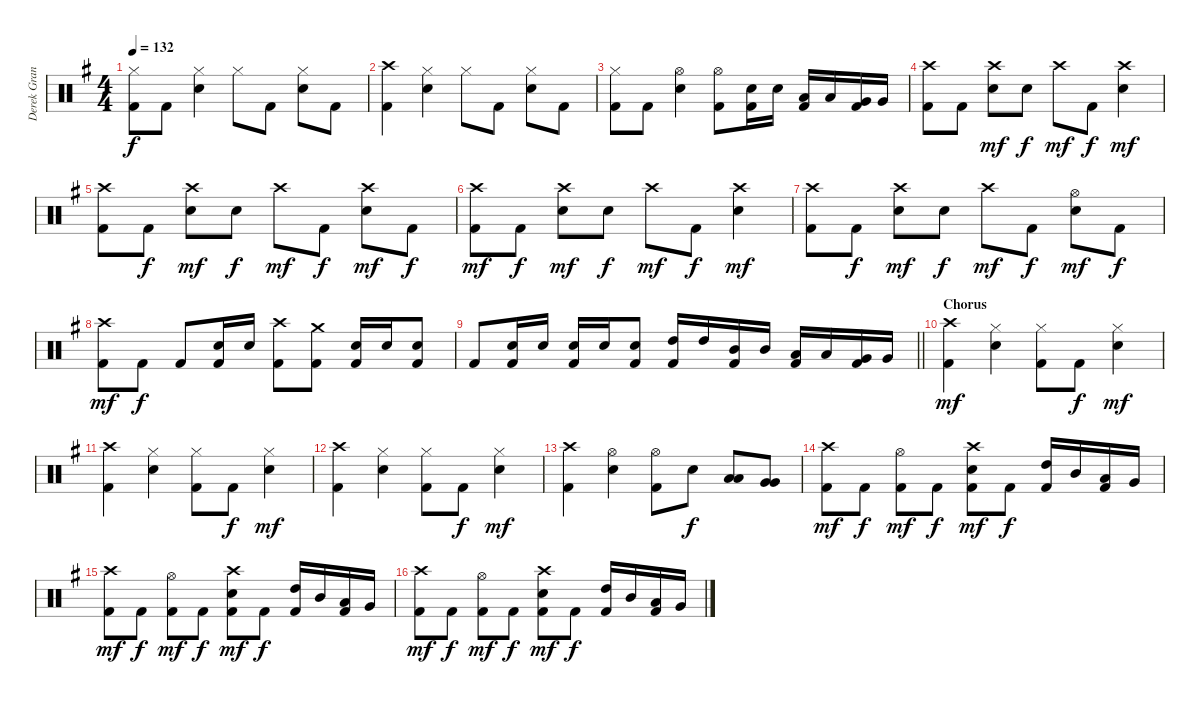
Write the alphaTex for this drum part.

\track ("Derek Grant - Drums" "Derek Gran") {instrument percussion}
\staff {score}
\articulation defaults
\ts (4 4)
\tempo 132
\clef neutral
\ks g
("Kick (hit) 2" "Hi-Hat (closed)").8{dy f} "Kick (hit) 2".8 ("Snare (hit) 2" "Hi-Hat (closed)").4 "Hi-Hat (closed)".8 "Kick (hit) 2".8 ("Snare (hit) 2" "Hi-Hat (closed)").8 "Kick (hit) 2".8 |
("Kick (hit) 2" "Crash high (hit)").4 ("Snare (hit) 2" "Hi-Hat (closed)").4 "Hi-Hat (closed)".8 "Kick (hit) 2".8 ("Snare (hit) 2" "Hi-Hat (closed)").8 "Kick (hit) 2".8 |
("Kick (hit) 2" "Hi-Hat (closed)").8 "Kick (hit) 2".8 ("Snare (hit) 2" "Hi-Hat (open)").4 ("Kick (hit) 2" "Hi-Hat (open)").8 ("Snare (hit) 2" "Kick (hit) 2").16 "Snare (hit) 2".16 ("Low Tom (hit)" "Kick (hit) 2").16 "Low Tom (hit)".16 ("Very Low Tom (hit)" "Kick (hit) 2").16 "Very Low Tom (hit)".16 |
("Kick (hit) 2" "Crash high (hit)").8 "Kick (hit) 2".8 ("Snare (hit) 2" "Crash high (hit)").8{dy mf} "Snare (hit) 2".8{dy f} "Crash high (hit)".8{dy mf} "Kick (hit) 2".8{dy f} ("Snare (hit) 2" "Crash high (hit)").4{dy mf} |
("Kick (hit) 2" "Crash high (hit)").8 "Kick (hit) 2".8{dy f} ("Snare (hit) 2" "Crash high (hit)").8{dy mf} "Snare (hit) 2".8{dy f} "Crash high (hit)".8{dy mf} "Kick (hit) 2".8{dy f} ("Snare (hit) 2" "Crash high (hit)").8{dy mf} "Kick (hit) 2".8{dy f} |
("Kick (hit) 2" "Crash high (hit)").8{dy mf} "Kick (hit) 2".8{dy f} ("Snare (hit) 2" "Crash high (hit)").8{dy mf} "Snare (hit) 2".8{dy f} "Crash high (hit)".8{dy mf} "Kick (hit) 2".8{dy f} ("Snare (hit) 2" "Crash high (hit)").4{dy mf} |
("Kick (hit) 2" "Crash high (hit)").8 "Kick (hit) 2".8{dy f} ("Snare (hit) 2" "Crash high (hit)").8{dy mf} "Snare (hit) 2".8{dy f} "Crash high (hit)".8{dy mf} "Kick (hit) 2".8{dy f} ("Snare (hit) 2" "Hi-Hat (open)").8{dy mf} "Kick (hit) 2".8{dy f} |
("Kick (hit) 2" "Crash high (hit)").8{dy mf} "Kick (hit) 2".8{dy f} "Kick (hit) 2".8 ("Kick (hit) 2" "Snare (hit) 2").16 "Snare (hit) 2".16 ("Kick (hit) 2" "Crash high (hit)").8 ("Kick (hit) 2" "Crash medium (hit)").8 ("Kick (hit) 2" "Snare (hit) 2").16 "Snare (hit) 2".16 ("Kick (hit) 2" "Snare (hit) 2").8 |
\barLineRight lightlight "Kick (hit) 2".8
("Kick (hit) 2" "Snare (hit) 2").16 "Snare (hit) 2".16 ("Kick (hit) 2" "Snare (hit) 2").16 "Snare (hit) 2".16 ("Kick (hit) 2" "Snare (hit) 2").8 ("Kick (hit) 2" "High Tom (hit)").16 "High Tom (hit)".16 ("Kick (hit) 2" "Mid Tom (hit)").16 "Mid Tom (hit)".16 ("Kick (hit) 2" "Low Tom (hit)").16 "Low Tom (hit)".16 ("Kick (hit) 2" "Very Low Tom (hit)").16 "Very Low Tom (hit)".16 |
\section ("" "Chorus")
("Kick (hit) 2" "Crash high (hit)").4{dy mf} ("Snare (hit) 2" "Hi-Hat (closed)").4 ("Kick (hit) 2" "Hi-Hat (closed)").8 "Kick (hit) 2".8{dy f} ("Snare (hit) 2" "Hi-Hat (closed)").4{dy mf} |
("Kick (hit) 2" "Crash high (hit)").4 ("Snare (hit) 2" "Hi-Hat (closed)").4 ("Kick (hit) 2" "Hi-Hat (closed)").8 "Kick (hit) 2".8{dy f} ("Snare (hit) 2" "Hi-Hat (closed)").4{dy mf} |
("Kick (hit) 2" "Crash high (hit)").4 ("Snare (hit) 2" "Hi-Hat (closed)").4 ("Kick (hit) 2" "Hi-Hat (closed)").8 "Kick (hit) 2".8{dy f} ("Snare (hit) 2" "Hi-Hat (closed)").4{dy mf} |
("Kick (hit) 2" "Crash high (hit)").4 ("Snare (hit) 2" "Hi-Hat (open)").4 ("Kick (hit) 2" "Hi-Hat (open)").8 "Snare (hit) 2".8{dy f} ("Low Tom (hit)" "Low Tom (hit)").8 ("Very Low Tom (hit)" "Very Low Tom (hit)").8 |
("Kick (hit) 2" "Crash high (hit)").8{dy mf} "Kick (hit) 2".8{dy f} ("Kick (hit) 2" "Hi-Hat (open)").8{dy mf} "Kick (hit) 2".8{dy f} ("Kick (hit) 2" "Snare (hit) 2" "Crash high (hit)").8{dy mf} "Kick (hit) 2".8{dy f} ("Kick (hit) 2" "High Tom (hit)").16 "Mid Tom (hit)".16 ("Kick (hit) 2" "Low Tom (hit)").16 "Very Low Tom (hit)".16 |
("Kick (hit) 2" "Crash high (hit)").8{dy mf} "Kick (hit) 2".8{dy f} ("Kick (hit) 2" "Hi-Hat (open)").8{dy mf} "Kick (hit) 2".8{dy f} ("Kick (hit) 2" "Snare (hit) 2" "Crash high (hit)").8{dy mf} "Kick (hit) 2".8{dy f} ("Kick (hit) 2" "High Tom (hit)").16 "Mid Tom (hit)".16 ("Kick (hit) 2" "Low Tom (hit)").16 "Very Low Tom (hit)".16 |
("Kick (hit) 2" "Crash high (hit)").8{dy mf} "Kick (hit) 2".8{dy f} ("Kick (hit) 2" "Hi-Hat (open)").8{dy mf} "Kick (hit) 2".8{dy f} ("Kick (hit) 2" "Snare (hit) 2" "Crash high (hit)").8{dy mf} "Kick (hit) 2".8{dy f} ("Kick (hit) 2" "High Tom (hit)").16 "Mid Tom (hit)".16 ("Kick (hit) 2" "Low Tom (hit)").16 "Very Low Tom (hit)".16
